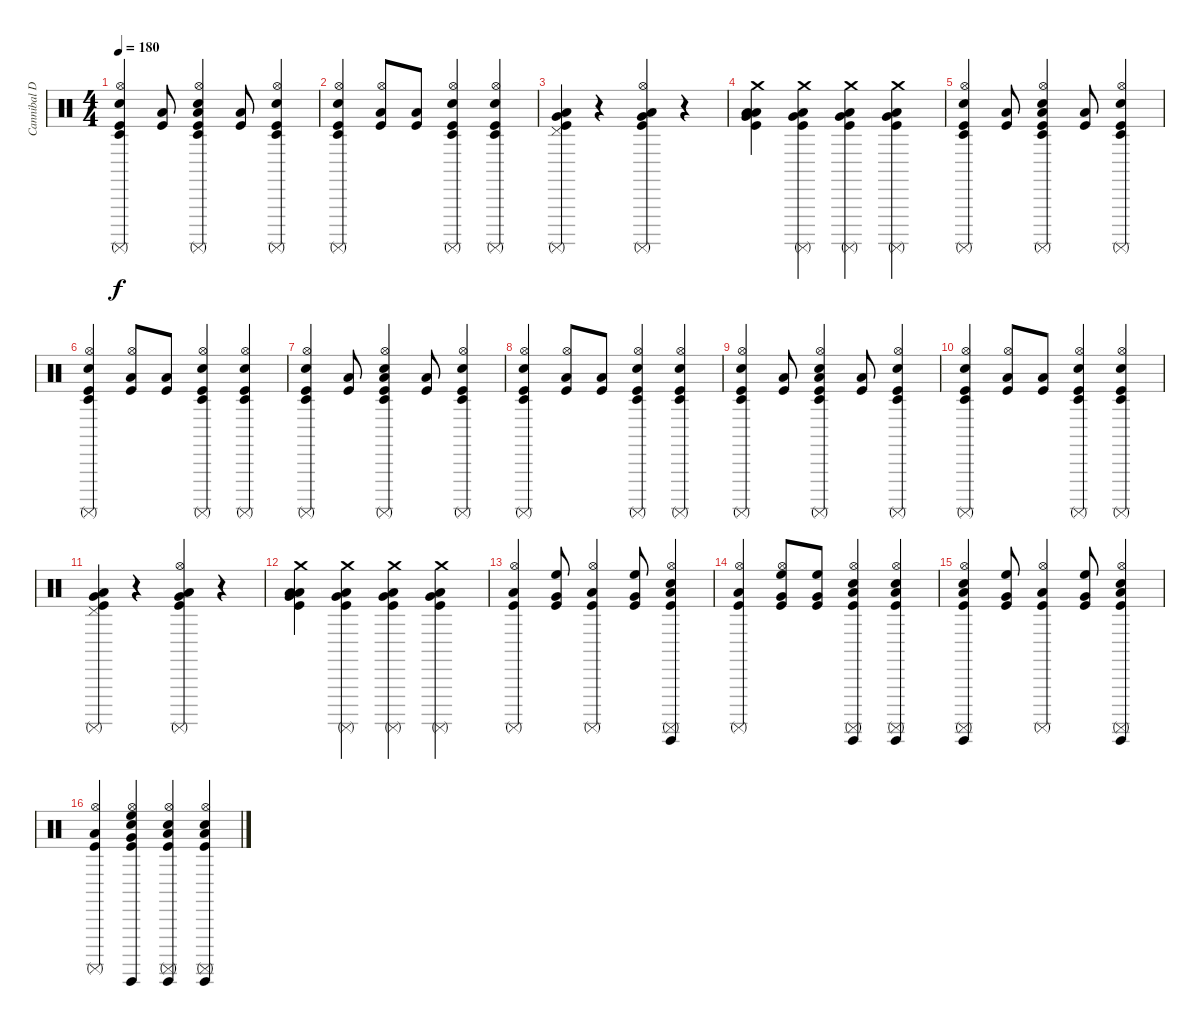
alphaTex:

\track ("Cannibal Drums :)" "Cannibal D") {instrument percussion}
\staff {score}
\articulation defaults
\ts (4 4)
\tempo 180
\clef neutral
\ks c
("Kick (hit)" "Hi-Hat (open)" "Surdo (mute)" "Timbale low (hit)" "Snare (hit) 2").4{dy f} ("Kick (hit)" "Low Floor Tom (hit)").8 ("Kick (hit)" "Hi-Hat (open)" "Timbale low (hit)" "Low Tom (hit)" "Snare (hit) 2" "Surdo (mute)").4 ("Kick (hit)" "Low Floor Tom (hit)").8 ("Kick (hit)" "Hi-Hat (open)" "Timbale low (hit)" "Surdo (mute)" "Snare (hit) 2").4 |
("Kick (hit)" "Hi-Hat (open)" "Timbale low (hit)" "Surdo (mute)" "Snare (hit) 2").4 ("Kick (hit)" "Hi-Hat (open)" "Low Floor Tom (hit)").8 ("Kick (hit)" "Low Floor Tom (hit)").8 ("Kick (hit)" "Hi-Hat (open)" "Timbale low (hit)" "Surdo (mute)" "Snare (hit) 2").4 ("Kick (hit)" "Hi-Hat (open)" "Timbale low (hit)" "Surdo (mute)" "Snare (hit) 2").4 |
("Kick (hit)" "Pedal Hi-Hat (hit)" "Low Tom (hit)" "Surdo (mute)" "Very Low Tom (hit)").4 r.4 ("Kick (hit)" "Hi-Hat (open)" "Low Tom (hit)" "Surdo (mute)" "Very Low Tom (hit)").4 r.4 |
("Kick (hit)" "Crash medium (hit)" "Low Tom (hit)" "Low Floor Tom (hit)" "Very Low Tom (hit)").4 ("Kick (hit)" "Crash medium (hit)" "Low Tom (hit)" "Surdo (mute)" "Very Low Tom (hit)").4 ("Kick (hit)" "Crash medium (hit)" "Low Tom (hit)" "Surdo (mute)" "Very Low Tom (hit)").4 ("Kick (hit)" "Crash medium (hit)" "Low Tom (hit)" "Surdo (mute)" "Very Low Tom (hit)").4 |
("Kick (hit)" "Hi-Hat (open)" "Surdo (mute)" "Timbale low (hit)" "Snare (hit) 2").4 ("Kick (hit)" "Low Floor Tom (hit)").8 ("Kick (hit)" "Hi-Hat (open)" "Timbale low (hit)" "Low Tom (hit)" "Snare (hit) 2" "Surdo (mute)").4 ("Kick (hit)" "Low Floor Tom (hit)").8 ("Kick (hit)" "Hi-Hat (open)" "Timbale low (hit)" "Surdo (mute)" "Snare (hit) 2").4 |
("Kick (hit)" "Hi-Hat (open)" "Timbale low (hit)" "Surdo (mute)" "Snare (hit) 2").4 ("Kick (hit)" "Hi-Hat (open)" "Low Floor Tom (hit)").8 ("Kick (hit)" "Low Floor Tom (hit)").8 ("Kick (hit)" "Hi-Hat (open)" "Timbale low (hit)" "Surdo (mute)" "Snare (hit) 2").4 ("Kick (hit)" "Hi-Hat (open)" "Timbale low (hit)" "Surdo (mute)" "Snare (hit) 2").4 |
("Kick (hit)" "Hi-Hat (open)" "Surdo (mute)" "Timbale low (hit)" "Snare (hit) 2").4 ("Kick (hit)" "Low Floor Tom (hit)").8 ("Kick (hit)" "Hi-Hat (open)" "Timbale low (hit)" "Low Tom (hit)" "Snare (hit) 2" "Surdo (mute)").4 ("Kick (hit)" "Low Floor Tom (hit)").8 ("Kick (hit)" "Hi-Hat (open)" "Timbale low (hit)" "Surdo (mute)" "Snare (hit) 2").4 |
("Kick (hit)" "Hi-Hat (open)" "Timbale low (hit)" "Surdo (mute)" "Snare (hit) 2").4 ("Kick (hit)" "Hi-Hat (open)" "Low Floor Tom (hit)").8 ("Kick (hit)" "Low Floor Tom (hit)").8 ("Kick (hit)" "Hi-Hat (open)" "Timbale low (hit)" "Surdo (mute)" "Snare (hit) 2").4 ("Kick (hit)" "Hi-Hat (open)" "Timbale low (hit)" "Surdo (mute)" "Snare (hit) 2").4 |
("Kick (hit)" "Hi-Hat (open)" "Surdo (mute)" "Timbale low (hit)" "Snare (hit) 2").4 ("Kick (hit)" "Low Floor Tom (hit)").8 ("Kick (hit)" "Hi-Hat (open)" "Timbale low (hit)" "Low Tom (hit)" "Snare (hit) 2" "Surdo (mute)").4 ("Kick (hit)" "Low Floor Tom (hit)").8 ("Kick (hit)" "Hi-Hat (open)" "Timbale low (hit)" "Surdo (mute)" "Snare (hit) 2").4 |
("Kick (hit)" "Hi-Hat (open)" "Timbale low (hit)" "Surdo (mute)" "Snare (hit) 2").4 ("Kick (hit)" "Hi-Hat (open)" "Low Floor Tom (hit)").8 ("Kick (hit)" "Low Floor Tom (hit)").8 ("Kick (hit)" "Hi-Hat (open)" "Timbale low (hit)" "Surdo (mute)" "Snare (hit) 2").4 ("Kick (hit)" "Hi-Hat (open)" "Timbale low (hit)" "Surdo (mute)" "Snare (hit) 2").4 |
("Kick (hit)" "Pedal Hi-Hat (hit)" "Low Tom (hit)" "Surdo (mute)" "Very Low Tom (hit)").4 r.4 ("Kick (hit)" "Hi-Hat (open)" "Low Tom (hit)" "Surdo (mute)" "Very Low Tom (hit)").4 r.4 |
("Kick (hit)" "Crash medium (hit)" "Low Tom (hit)" "Low Floor Tom (hit)" "Very Low Tom (hit)").4 ("Kick (hit)" "Crash medium (hit)" "Low Tom (hit)" "Surdo (mute)" "Very Low Tom (hit)").4 ("Kick (hit)" "Crash medium (hit)" "Low Tom (hit)" "Surdo (mute)" "Very Low Tom (hit)").4 ("Kick (hit)" "Crash medium (hit)" "Low Tom (hit)" "Surdo (mute)" "Very Low Tom (hit)").4 |
("Kick (hit)" "Hi-Hat (open)" "Low Tom (hit)" "Surdo (mute)").4 ("Kick (hit)" "High Floor Tom (hit)" "Very Low Tom (hit)").8 ("Kick (hit)" "Hi-Hat (open)" "Low Tom (hit)" "Surdo (mute)").4 ("Kick (hit)" "High Floor Tom (hit)" "Very Low Tom (hit)").8 ("Kick (hit)" "Hand Clap (hit)" "Guiro (hit)" "Low Tom (hit)" "Surdo (mute)" "Hi-Hat (open)").4 |
("Kick (hit)" "Low Tom (hit)" "Surdo (mute)" "Hi-Hat (open)").4 ("Kick (hit)" "High Floor Tom (hit)" "Very Low Tom (hit)" "Hi-Hat (open)").8 ("Kick (hit)" "High Floor Tom (hit)" "Very Low Tom (hit)").8 ("Kick (hit)" "Hand Clap (hit)" "Guiro (hit)" "Low Tom (hit)" "Surdo (mute)" "Hi-Hat (open)").4 ("Kick (hit)" "Hand Clap (hit)" "Guiro (hit)" "Low Tom (hit)" "Surdo (mute)" "Hi-Hat (open)").4 |
("Kick (hit)" "Hand Clap (hit)" "Guiro (hit)" "Low Tom (hit)" "Surdo (mute)" "Hi-Hat (open)").4 ("Kick (hit)" "High Floor Tom (hit)" "Very Low Tom (hit)").8 ("Kick (hit)" "Low Tom (hit)" "Hi-Hat (open)" "Surdo (mute)").4 ("Kick (hit)" "High Floor Tom (hit)" "Very Low Tom (hit)").8 ("Kick (hit)" "Hand Clap (hit)" "Guiro (hit)" "Low Tom (hit)" "Surdo (mute)" "Hi-Hat (open)").4 |
("Kick (hit)" "Low Tom (hit)" "Surdo (mute)" "Hi-Hat (open)").4 ("Kick (hit)" "Hand Clap (hit)" "Guiro (hit)" "High Floor Tom (hit)" "Very Low Tom (hit)" "Hi-Hat (open)").4 ("Kick (hit)" "Hand Clap (hit)" "Guiro (hit)" "Low Tom (hit)" "Surdo (mute)" "Hi-Hat (open)").4 ("Kick (hit)" "Hand Clap (hit)" "Guiro (hit)" "Low Tom (hit)" "Surdo (mute)" "Hi-Hat (open)").4
